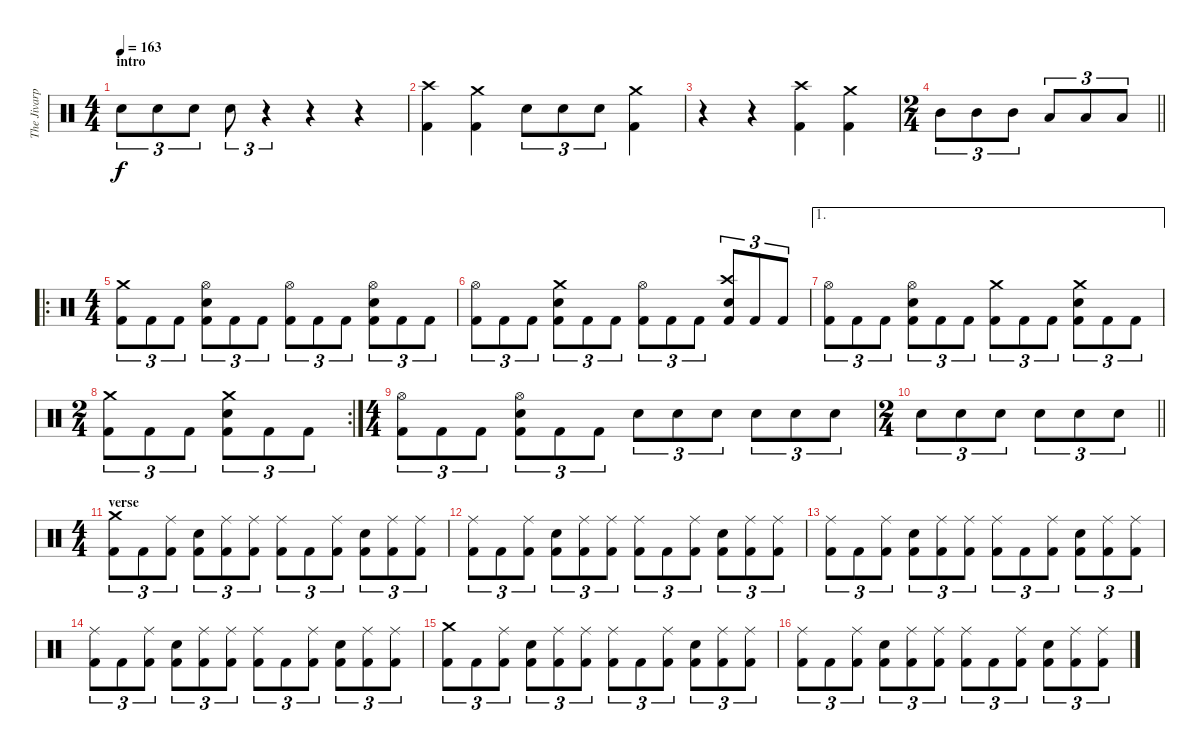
\track ("The Jivarp" "The Jivarp") {instrument percussion}
\staff {score}
\articulation defaults
\ts (4 4)
\section ("" "intro")
\tempo 163
\clef neutral
\ks c "Electric Snare (hit)".8{tu (3 2) dy f} "Electric Snare (hit)".8{tu (3 2)} "Electric Snare (hit)".8{tu (3 2)} "Electric Snare (hit)".8{tu (3 2)}
r.4{tu (3 2)} r.4 r.4 |
("Crash high (hit)" "Kick (hit) 2").4 ("Crash medium (hit)" "Kick (hit) 2").4 "Electric Snare (hit)".8{tu (3 2)} "Electric Snare (hit)".8{tu (3 2)} "Electric Snare (hit)".8{tu (3 2)} ("Crash medium (hit)" "Kick (hit) 2").4 |
r.4 r.4 ("Crash high (hit)" "Kick (hit) 2").4 ("Crash medium (hit)" "Kick (hit) 2").4 |
\ts (2 4)
\barLineRight lightlight "Mid Tom (hit)".8{tu (3 2)} "Mid Tom (hit)".8{tu (3 2)} "Mid Tom (hit)".8{tu (3 2)} "Low Tom (hit)".8{tu (3 2)} "Low Tom (hit)".8{tu (3 2)} "Low Tom (hit)".8{tu (3 2)}
|
\ro
\ts (4 4)
\section ("" "")
("Crash medium (hit)" "Kick (hit) 2").8{tu (3 2)} "Kick (hit) 2".8{tu (3 2)} "Kick (hit) 2".8{tu (3 2)} ("Hi-Hat (open)" "Electric Snare (hit)" "Kick (hit) 2").8{tu (3 2)} "Kick (hit) 2".8{tu (3 2)} "Kick (hit) 2".8{tu (3 2)} ("Hi-Hat (open)" "Kick (hit) 2").8{tu (3 2)} "Kick (hit) 2".8{tu (3 2)} "Kick (hit) 2".8{tu (3 2)} ("Hi-Hat (open)" "Electric Snare (hit)" "Kick (hit) 2").8{tu (3 2)} "Kick (hit) 2".8{tu (3 2)} "Kick (hit) 2".8{tu (3 2)} |
("Hi-Hat (open)" "Kick (hit) 2").8{tu (3 2)} "Kick (hit) 2".8{tu (3 2)} "Kick (hit) 2".8{tu (3 2)} ("Crash medium (hit)" "Electric Snare (hit)" "Kick (hit) 2").8{tu (3 2)} "Kick (hit) 2".8{tu (3 2)} "Kick (hit) 2".8{tu (3 2)} ("Hi-Hat (open)" "Kick (hit) 2").8{tu (3 2)} "Kick (hit) 2".8{tu (3 2)} "Kick (hit) 2".8{tu (3 2)} ("Crash high (hit)" "Electric Snare (hit)" "Kick (hit) 2").8{tu (3 2)} "Kick (hit) 2".8{tu (3 2)} "Kick (hit) 2".8{tu (3 2)} |
\ae 1
("Hi-Hat (open)" "Kick (hit) 2").8{tu (3 2)} "Kick (hit) 2".8{tu (3 2)} "Kick (hit) 2".8{tu (3 2)} ("Hi-Hat (open)" "Electric Snare (hit)" "Kick (hit) 2").8{tu (3 2)} "Kick (hit) 2".8{tu (3 2)} "Kick (hit) 2".8{tu (3 2)} ("Crash medium (hit)" "Kick (hit) 2").8{tu (3 2)} "Kick (hit) 2".8{tu (3 2)} "Kick (hit) 2".8{tu (3 2)} ("Crash medium (hit)" "Electric Snare (hit)" "Kick (hit) 2").8{tu (3 2)} "Kick (hit) 2".8{tu (3 2)} "Kick (hit) 2".8{tu (3 2)} |
\rc 2
\ts (2 4)
("Crash medium (hit)" "Kick (hit) 2").8{tu (3 2)} "Kick (hit) 2".8{tu (3 2)} "Kick (hit) 2".8{tu (3 2)} ("Crash medium (hit)" "Electric Snare (hit)" "Kick (hit) 2").8{tu (3 2)} "Kick (hit) 2".8{tu (3 2)} "Kick (hit) 2".8{tu (3 2)} |
\ts (4 4)
("Hi-Hat (open)" "Kick (hit) 2").8{tu (3 2)} "Kick (hit) 2".8{tu (3 2)} "Kick (hit) 2".8{tu (3 2)} ("Hi-Hat (open)" "Electric Snare (hit)" "Kick (hit) 2").8{tu (3 2)} "Kick (hit) 2".8{tu (3 2)} "Kick (hit) 2".8{tu (3 2)} "Electric Snare (hit)".8{tu (3 2)} "Electric Snare (hit)".8{tu (3 2)} "Electric Snare (hit)".8{tu (3 2)} "Electric Snare (hit)".8{tu (3 2)} "Electric Snare (hit)".8{tu (3 2)} "Electric Snare (hit)".8{tu (3 2)} |
\ts (2 4)
\barLineRight lightlight "Electric Snare (hit)".8{tu (3 2)} "Electric Snare (hit)".8{tu (3 2)} "Electric Snare (hit)".8{tu (3 2)} "Electric Snare (hit)".8{tu (3 2)} "Electric Snare (hit)".8{tu (3 2)} "Electric Snare (hit)".8{tu (3 2)}
|
\ts (4 4)
\section ("" "verse")
("Crash medium (hit)" "Kick (hit) 2").8{tu (3 2)} "Kick (hit) 2".8{tu (3 2)} ("Ride (middle)" "Kick (hit) 2").8{tu (3 2)} ("Electric Snare (hit)" "Kick (hit) 2").8{tu (3 2)} ("Ride (middle)" "Kick (hit) 2").8{tu (3 2)} ("Ride (middle)" "Kick (hit) 2").8{tu (3 2)} ("Ride (middle)" "Kick (hit) 2").8{tu (3 2)} "Kick (hit) 2".8{tu (3 2)} ("Ride (middle)" "Kick (hit) 2").8{tu (3 2)} ("Electric Snare (hit)" "Kick (hit) 2").8{tu (3 2)} ("Ride (middle)" "Kick (hit) 2").8{tu (3 2)} ("Ride (middle)" "Kick (hit) 2").8{tu (3 2)} |
("Ride (middle)" "Kick (hit) 2").8{tu (3 2)} "Kick (hit) 2".8{tu (3 2)} ("Ride (middle)" "Kick (hit) 2").8{tu (3 2)} ("Electric Snare (hit)" "Kick (hit) 2").8{tu (3 2)} ("Ride (middle)" "Kick (hit) 2").8{tu (3 2)} ("Ride (middle)" "Kick (hit) 2").8{tu (3 2)} ("Ride (middle)" "Kick (hit) 2").8{tu (3 2)} "Kick (hit) 2".8{tu (3 2)} ("Ride (middle)" "Kick (hit) 2").8{tu (3 2)} ("Electric Snare (hit)" "Kick (hit) 2").8{tu (3 2)} ("Ride (middle)" "Kick (hit) 2").8{tu (3 2)} ("Ride (middle)" "Kick (hit) 2").8{tu (3 2)} |
("Ride (middle)" "Kick (hit) 2").8{tu (3 2)} "Kick (hit) 2".8{tu (3 2)} ("Ride (middle)" "Kick (hit) 2").8{tu (3 2)} ("Electric Snare (hit)" "Kick (hit) 2").8{tu (3 2)} ("Ride (middle)" "Kick (hit) 2").8{tu (3 2)} ("Ride (middle)" "Kick (hit) 2").8{tu (3 2)} ("Ride (middle)" "Kick (hit) 2").8{tu (3 2)} "Kick (hit) 2".8{tu (3 2)} ("Ride (middle)" "Kick (hit) 2").8{tu (3 2)} ("Electric Snare (hit)" "Kick (hit) 2").8{tu (3 2)} ("Ride (middle)" "Kick (hit) 2").8{tu (3 2)} ("Ride (middle)" "Kick (hit) 2").8{tu (3 2)} |
("Ride (middle)" "Kick (hit) 2").8{tu (3 2)} "Kick (hit) 2".8{tu (3 2)} ("Ride (middle)" "Kick (hit) 2").8{tu (3 2)} ("Electric Snare (hit)" "Kick (hit) 2").8{tu (3 2)} ("Ride (middle)" "Kick (hit) 2").8{tu (3 2)} ("Ride (middle)" "Kick (hit) 2").8{tu (3 2)} ("Ride (middle)" "Kick (hit) 2").8{tu (3 2)} "Kick (hit) 2".8{tu (3 2)} ("Ride (middle)" "Kick (hit) 2").8{tu (3 2)} ("Electric Snare (hit)" "Kick (hit) 2").8{tu (3 2)} ("Ride (middle)" "Kick (hit) 2").8{tu (3 2)} ("Ride (middle)" "Kick (hit) 2").8{tu (3 2)} |
("Crash medium (hit)" "Kick (hit) 2").8{tu (3 2)} "Kick (hit) 2".8{tu (3 2)} ("Ride (middle)" "Kick (hit) 2").8{tu (3 2)} ("Electric Snare (hit)" "Kick (hit) 2").8{tu (3 2)} ("Ride (middle)" "Kick (hit) 2").8{tu (3 2)} ("Ride (middle)" "Kick (hit) 2").8{tu (3 2)} ("Ride (middle)" "Kick (hit) 2").8{tu (3 2)} "Kick (hit) 2".8{tu (3 2)} ("Ride (middle)" "Kick (hit) 2").8{tu (3 2)} ("Electric Snare (hit)" "Kick (hit) 2").8{tu (3 2)} ("Ride (middle)" "Kick (hit) 2").8{tu (3 2)} ("Ride (middle)" "Kick (hit) 2").8{tu (3 2)} |
("Ride (middle)" "Kick (hit) 2").8{tu (3 2)} "Kick (hit) 2".8{tu (3 2)} ("Ride (middle)" "Kick (hit) 2").8{tu (3 2)} ("Electric Snare (hit)" "Kick (hit) 2").8{tu (3 2)} ("Ride (middle)" "Kick (hit) 2").8{tu (3 2)} ("Ride (middle)" "Kick (hit) 2").8{tu (3 2)} ("Ride (middle)" "Kick (hit) 2").8{tu (3 2)} "Kick (hit) 2".8{tu (3 2)} ("Ride (middle)" "Kick (hit) 2").8{tu (3 2)} ("Electric Snare (hit)" "Kick (hit) 2").8{tu (3 2)} ("Ride (middle)" "Kick (hit) 2").8{tu (3 2)} ("Ride (middle)" "Kick (hit) 2").8{tu (3 2)}
